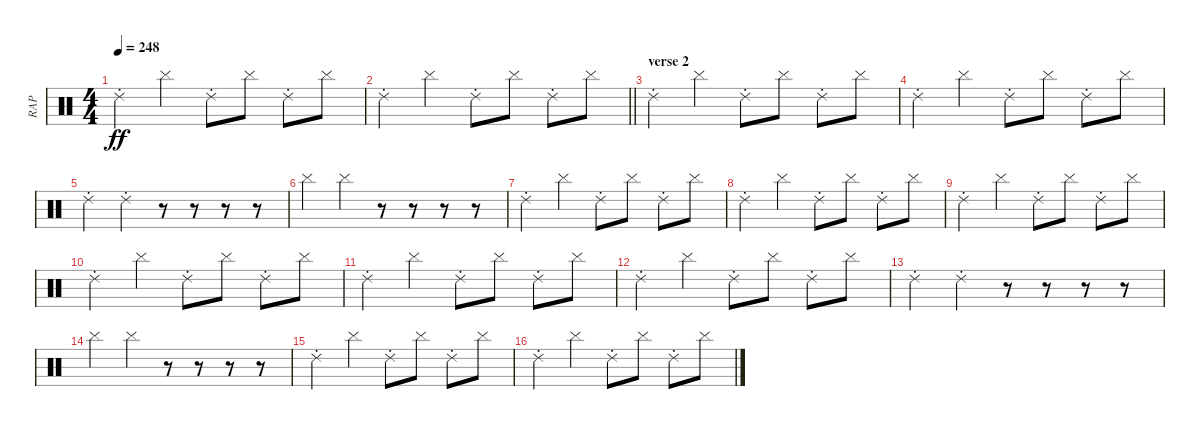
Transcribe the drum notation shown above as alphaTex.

\track ("RAP" "RAP") {instrument percussion}
\staff {score}
\articulation defaults
\ts (4 4)
\tempo 248
\clef neutral
\ks c "Ride (choke) 2".4{dy ff} "Cymbal (hit)".4 "Ride (choke) 2".8 "Cymbal (hit)".8 "Ride (choke) 2".8 "Cymbal (hit)".8
|
\barLineRight lightlight "Ride (choke) 2".4 "Cymbal (hit)".4 "Ride (choke) 2".8 "Cymbal (hit)".8 "Ride (choke) 2".8 "Cymbal (hit)".8
|
\section ("" "verse 2")
"Ride (choke) 2".4 "Cymbal (hit)".4 "Ride (choke) 2".8 "Cymbal (hit)".8 "Ride (choke) 2".8 "Cymbal (hit)".8 |
"Ride (choke) 2".4 "Cymbal (hit)".4 "Ride (choke) 2".8 "Cymbal (hit)".8 "Ride (choke) 2".8 "Cymbal (hit)".8 |
"Ride (choke) 2".4 "Ride (choke) 2".4 r.8 r.8 r.8 r.8 |
"Cymbal (hit)".4 "Cymbal (hit)".4 r.8 r.8 r.8 r.8 |
"Ride (choke) 2".4 "Cymbal (hit)".4 "Ride (choke) 2".8 "Cymbal (hit)".8 "Ride (choke) 2".8 "Cymbal (hit)".8 |
"Ride (choke) 2".4 "Cymbal (hit)".4 "Ride (choke) 2".8 "Cymbal (hit)".8 "Ride (choke) 2".8 "Cymbal (hit)".8 |
"Ride (choke) 2".4 "Cymbal (hit)".4 "Ride (choke) 2".8 "Cymbal (hit)".8 "Ride (choke) 2".8 "Cymbal (hit)".8 |
"Ride (choke) 2".4 "Cymbal (hit)".4 "Ride (choke) 2".8 "Cymbal (hit)".8 "Ride (choke) 2".8 "Cymbal (hit)".8 |
"Ride (choke) 2".4 "Cymbal (hit)".4 "Ride (choke) 2".8 "Cymbal (hit)".8 "Ride (choke) 2".8 "Cymbal (hit)".8 |
"Ride (choke) 2".4 "Cymbal (hit)".4 "Ride (choke) 2".8 "Cymbal (hit)".8 "Ride (choke) 2".8 "Cymbal (hit)".8 |
"Ride (choke) 2".4 "Ride (choke) 2".4 r.8 r.8 r.8 r.8 |
"Cymbal (hit)".4 "Cymbal (hit)".4 r.8 r.8 r.8 r.8 |
"Ride (choke) 2".4 "Cymbal (hit)".4 "Ride (choke) 2".8 "Cymbal (hit)".8 "Ride (choke) 2".8 "Cymbal (hit)".8 |
"Ride (choke) 2".4 "Cymbal (hit)".4 "Ride (choke) 2".8 "Cymbal (hit)".8 "Ride (choke) 2".8 "Cymbal (hit)".8
